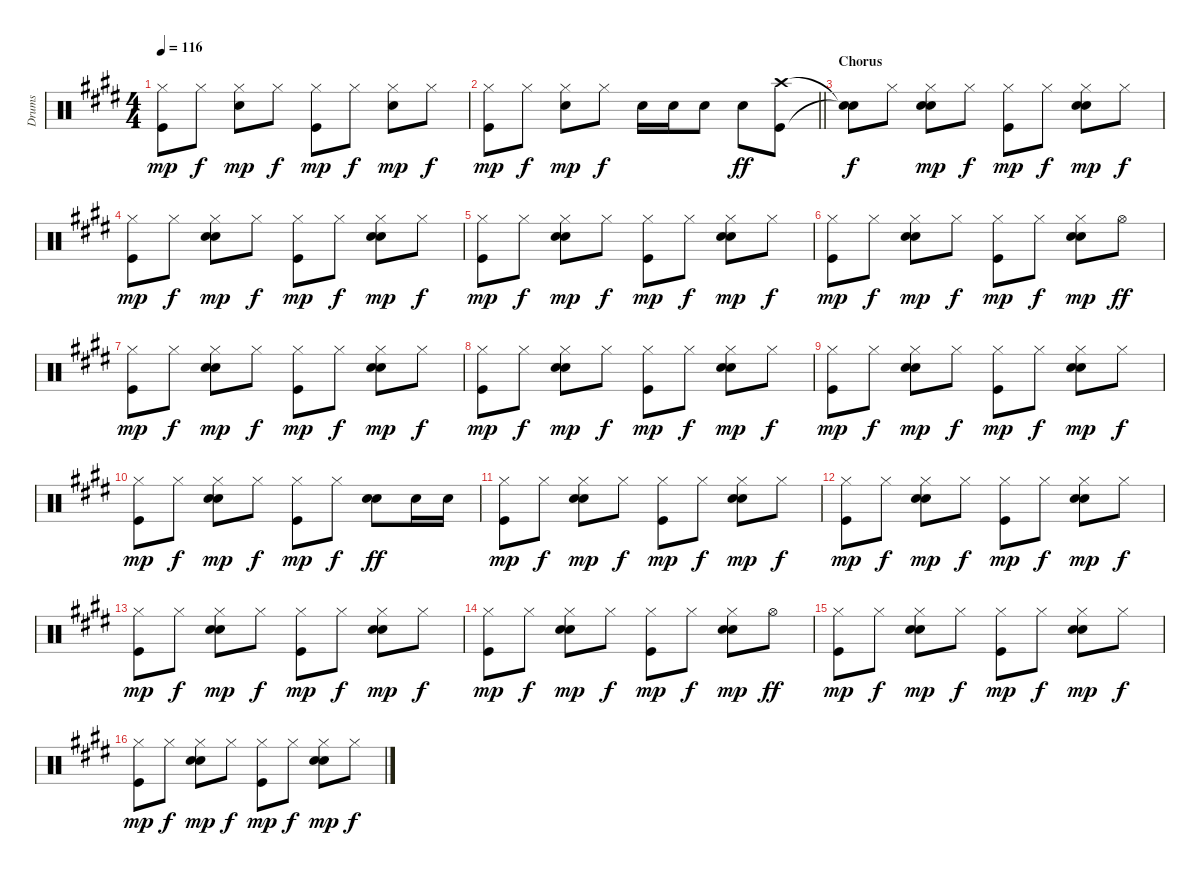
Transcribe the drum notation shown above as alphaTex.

\track ("Drums" "Drums") {instrument percussion}
\staff {score}
\articulation defaults
\ts (4 4)
\tempo 116
\clef neutral
\ks e
("Kick (hit)" "Hi-Hat (closed)").8{dy mp} "Hi-Hat (closed)".8{dy f} ("Electric Snare (hit)" "Hi-Hat (closed)").8{dy mp} "Hi-Hat (closed)".8{dy f} ("Kick (hit)" "Hi-Hat (closed)").8{dy mp} "Hi-Hat (closed)".8{dy f} ("Electric Snare (hit)" "Hi-Hat (closed)").8{dy mp} "Hi-Hat (closed)".8{dy f} |
\barLineRight lightlight
("Kick (hit)" "Hi-Hat (closed)").8{dy mp} "Hi-Hat (closed)".8{dy f} ("Electric Snare (hit)" "Hi-Hat (closed)").8{dy mp} "Hi-Hat (closed)".8{dy f} "Electric Snare (hit)".16 "Electric Snare (hit)".16 "Electric Snare (hit)".8 "Electric Snare (hit)".8{dy ff} ("Kick (hit)" "Crash high (hit)").8 |
\section ("" "Chorus")
("Snare (hit)"{t} "Snare (hit)"{t}).8{dy f} "Hi-Hat (closed)".8 ("Hand Clap (hit)" "Electric Snare (hit)" "Hi-Hat (closed)").8{dy mp} "Hi-Hat (closed)".8{dy f} ("Kick (hit)" "Hi-Hat (closed)").8{dy mp} "Hi-Hat (closed)".8{dy f} ("Hand Clap (hit)" "Electric Snare (hit)" "Hi-Hat (closed)").8{dy mp} "Hi-Hat (closed)".8{dy f} |
("Kick (hit)" "Hi-Hat (closed)").8{dy mp} "Hi-Hat (closed)".8{dy f} ("Hand Clap (hit)" "Electric Snare (hit)" "Hi-Hat (closed)").8{dy mp} "Hi-Hat (closed)".8{dy f} ("Kick (hit)" "Hi-Hat (closed)").8{dy mp} "Hi-Hat (closed)".8{dy f} ("Hand Clap (hit)" "Electric Snare (hit)" "Hi-Hat (closed)").8{dy mp} "Hi-Hat (closed)".8{dy f} |
("Kick (hit)" "Hi-Hat (closed)").8{dy mp} "Hi-Hat (closed)".8{dy f} ("Hand Clap (hit)" "Electric Snare (hit)" "Hi-Hat (closed)").8{dy mp} "Hi-Hat (closed)".8{dy f} ("Kick (hit)" "Hi-Hat (closed)").8{dy mp} "Hi-Hat (closed)".8{dy f} ("Hand Clap (hit)" "Electric Snare (hit)" "Hi-Hat (closed)").8{dy mp} "Hi-Hat (closed)".8{dy f} |
("Kick (hit)" "Hi-Hat (closed)").8{dy mp} "Hi-Hat (closed)".8{dy f} ("Hand Clap (hit)" "Electric Snare (hit)" "Hi-Hat (closed)").8{dy mp} "Hi-Hat (closed)".8{dy f} ("Kick (hit)" "Hi-Hat (closed)").8{dy mp} "Hi-Hat (closed)".8{dy f} ("Hand Clap (hit)" "Electric Snare (hit)" "Hi-Hat (closed)").8{dy mp} "Hi-Hat (open)".8{dy ff} |
("Kick (hit)" "Hi-Hat (closed)").8{dy mp} "Hi-Hat (closed)".8{dy f} ("Hand Clap (hit)" "Electric Snare (hit)" "Hi-Hat (closed)").8{dy mp} "Hi-Hat (closed)".8{dy f} ("Kick (hit)" "Hi-Hat (closed)").8{dy mp} "Hi-Hat (closed)".8{dy f} ("Hand Clap (hit)" "Electric Snare (hit)" "Hi-Hat (closed)").8{dy mp} "Hi-Hat (closed)".8{dy f} |
("Kick (hit)" "Hi-Hat (closed)").8{dy mp} "Hi-Hat (closed)".8{dy f} ("Hand Clap (hit)" "Electric Snare (hit)" "Hi-Hat (closed)").8{dy mp} "Hi-Hat (closed)".8{dy f} ("Kick (hit)" "Hi-Hat (closed)").8{dy mp} "Hi-Hat (closed)".8{dy f} ("Hand Clap (hit)" "Electric Snare (hit)" "Hi-Hat (closed)").8{dy mp} "Hi-Hat (closed)".8{dy f} |
("Kick (hit)" "Hi-Hat (closed)").8{dy mp} "Hi-Hat (closed)".8{dy f} ("Hand Clap (hit)" "Electric Snare (hit)" "Hi-Hat (closed)").8{dy mp} "Hi-Hat (closed)".8{dy f} ("Kick (hit)" "Hi-Hat (closed)").8{dy mp} "Hi-Hat (closed)".8{dy f} ("Hand Clap (hit)" "Electric Snare (hit)" "Hi-Hat (closed)").8{dy mp} "Hi-Hat (closed)".8{dy f} |
("Kick (hit)" "Hi-Hat (closed)").8{dy mp} "Hi-Hat (closed)".8{dy f} ("Hand Clap (hit)" "Electric Snare (hit)" "Hi-Hat (closed)").8{dy mp} "Hi-Hat (closed)".8{dy f} ("Kick (hit)" "Hi-Hat (closed)").8{dy mp} "Hi-Hat (closed)".8{dy f} ("Hand Clap (hit)" "Electric Snare (hit)").8{dy ff} "Electric Snare (hit)".16 "Electric Snare (hit)".16 |
("Kick (hit)" "Hi-Hat (closed)").8{dy mp} "Hi-Hat (closed)".8{dy f} ("Hand Clap (hit)" "Electric Snare (hit)" "Hi-Hat (closed)").8{dy mp} "Hi-Hat (closed)".8{dy f} ("Kick (hit)" "Hi-Hat (closed)").8{dy mp} "Hi-Hat (closed)".8{dy f} ("Hand Clap (hit)" "Electric Snare (hit)" "Hi-Hat (closed)").8{dy mp} "Hi-Hat (closed)".8{dy f} |
("Kick (hit)" "Hi-Hat (closed)").8{dy mp} "Hi-Hat (closed)".8{dy f} ("Hand Clap (hit)" "Electric Snare (hit)" "Hi-Hat (closed)").8{dy mp} "Hi-Hat (closed)".8{dy f} ("Kick (hit)" "Hi-Hat (closed)").8{dy mp} "Hi-Hat (closed)".8{dy f} ("Hand Clap (hit)" "Electric Snare (hit)" "Hi-Hat (closed)").8{dy mp} "Hi-Hat (closed)".8{dy f} |
("Kick (hit)" "Hi-Hat (closed)").8{dy mp} "Hi-Hat (closed)".8{dy f} ("Hand Clap (hit)" "Electric Snare (hit)" "Hi-Hat (closed)").8{dy mp} "Hi-Hat (closed)".8{dy f} ("Kick (hit)" "Hi-Hat (closed)").8{dy mp} "Hi-Hat (closed)".8{dy f} ("Hand Clap (hit)" "Electric Snare (hit)" "Hi-Hat (closed)").8{dy mp} "Hi-Hat (closed)".8{dy f} |
("Kick (hit)" "Hi-Hat (closed)").8{dy mp} "Hi-Hat (closed)".8{dy f} ("Hand Clap (hit)" "Electric Snare (hit)" "Hi-Hat (closed)").8{dy mp} "Hi-Hat (closed)".8{dy f} ("Kick (hit)" "Hi-Hat (closed)").8{dy mp} "Hi-Hat (closed)".8{dy f} ("Hand Clap (hit)" "Electric Snare (hit)" "Hi-Hat (closed)").8{dy mp} "Hi-Hat (open)".8{dy ff} |
("Kick (hit)" "Hi-Hat (closed)").8{dy mp} "Hi-Hat (closed)".8{dy f} ("Hand Clap (hit)" "Electric Snare (hit)" "Hi-Hat (closed)").8{dy mp} "Hi-Hat (closed)".8{dy f} ("Kick (hit)" "Hi-Hat (closed)").8{dy mp} "Hi-Hat (closed)".8{dy f} ("Hand Clap (hit)" "Electric Snare (hit)" "Hi-Hat (closed)").8{dy mp} "Hi-Hat (closed)".8{dy f} |
("Kick (hit)" "Hi-Hat (closed)").8{dy mp} "Hi-Hat (closed)".8{dy f} ("Hand Clap (hit)" "Electric Snare (hit)" "Hi-Hat (closed)").8{dy mp} "Hi-Hat (closed)".8{dy f} ("Kick (hit)" "Hi-Hat (closed)").8{dy mp} "Hi-Hat (closed)".8{dy f} ("Hand Clap (hit)" "Electric Snare (hit)" "Hi-Hat (closed)").8{dy mp} "Hi-Hat (closed)".8{dy f}
